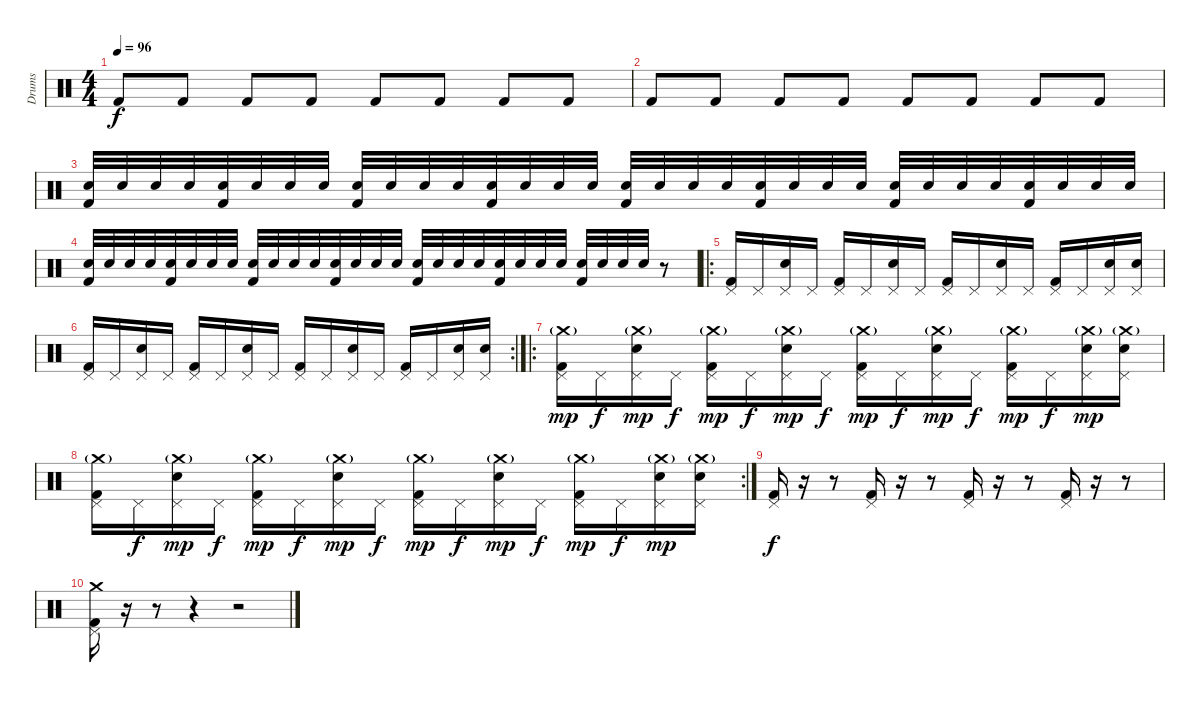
\track ("Drums" "Drums") {instrument percussion}
\staff
\articulation defaults
\ts (4 4)
\tempo 96
\clef neutral
\ks c "Kick (hit) 2".8{dy f} "Kick (hit) 2".8 "Kick (hit) 2".8 "Kick (hit) 2".8 "Kick (hit) 2".8 "Kick (hit) 2".8 "Kick (hit) 2".8 "Kick (hit) 2".8
|
"Kick (hit) 2".8 "Kick (hit) 2".8 "Kick (hit) 2".8 "Kick (hit) 2".8 "Kick (hit) 2".8 "Kick (hit) 2".8 "Kick (hit) 2".8 "Kick (hit) 2".8 |
("Kick (hit) 2" "Snare (hit) 2").32 "Snare (hit) 2".32 "Snare (hit) 2".32 "Snare (hit) 2".32 ("Kick (hit) 2" "Snare (hit) 2").32 "Snare (hit) 2".32 "Snare (hit) 2".32 "Snare (hit) 2".32 ("Kick (hit) 2" "Snare (hit) 2").32 "Snare (hit) 2".32 "Snare (hit) 2".32 "Snare (hit) 2".32 ("Kick (hit) 2" "Snare (hit) 2").32 "Snare (hit) 2".32 "Snare (hit) 2".32 "Snare (hit) 2".32 ("Kick (hit) 2" "Snare (hit) 2").32 "Snare (hit) 2".32 "Snare (hit) 2".32 "Snare (hit) 2".32 ("Kick (hit) 2" "Snare (hit) 2").32 "Snare (hit) 2".32 "Snare (hit) 2".32 "Snare (hit) 2".32 ("Kick (hit) 2" "Snare (hit) 2").32 "Snare (hit) 2".32 "Snare (hit) 2".32 "Snare (hit) 2".32 ("Kick (hit) 2" "Snare (hit) 2").32 "Snare (hit) 2".32 "Snare (hit) 2".32 "Snare (hit) 2".32 |
("Kick (hit) 2" "Snare (hit) 2").32 "Snare (hit) 2".32 "Snare (hit) 2".32 "Snare (hit) 2".32 ("Kick (hit) 2" "Snare (hit) 2").32 "Snare (hit) 2".32 "Snare (hit) 2".32 "Snare (hit) 2".32 ("Kick (hit) 2" "Snare (hit) 2").32 "Snare (hit) 2".32 "Snare (hit) 2".32 "Snare (hit) 2".32 ("Kick (hit) 2" "Snare (hit) 2").32 "Snare (hit) 2".32 "Snare (hit) 2".32 "Snare (hit) 2".32 ("Kick (hit) 2" "Snare (hit) 2").32 "Snare (hit) 2".32 "Snare (hit) 2".32 "Snare (hit) 2".32 ("Kick (hit) 2" "Snare (hit) 2").32 "Snare (hit) 2".32 "Snare (hit) 2".32 "Snare (hit) 2".32 ("Kick (hit) 2" "Snare (hit) 2").32 "Snare (hit) 2".32 "Snare (hit) 2".32 "Snare (hit) 2".32 r.8 |
\ro
("Pedal Hi-Hat (hit)" "Kick (hit) 2").16 "Pedal Hi-Hat (hit)".16 ("Pedal Hi-Hat (hit)" "Snare (hit) 2").16 "Pedal Hi-Hat (hit)".16 ("Pedal Hi-Hat (hit)" "Kick (hit) 2").16 "Pedal Hi-Hat (hit)".16 ("Pedal Hi-Hat (hit)" "Snare (hit) 2").16 "Pedal Hi-Hat (hit)".16 ("Pedal Hi-Hat (hit)" "Kick (hit) 2").16 "Pedal Hi-Hat (hit)".16 ("Pedal Hi-Hat (hit)" "Snare (hit) 2").16 "Pedal Hi-Hat (hit)".16 ("Pedal Hi-Hat (hit)" "Kick (hit) 2").16 "Pedal Hi-Hat (hit)".16 ("Pedal Hi-Hat (hit)" "Snare (hit) 2").16 ("Pedal Hi-Hat (hit)" "Snare (hit) 2").16 |
\rc 2
("Pedal Hi-Hat (hit)" "Kick (hit) 2").16 "Pedal Hi-Hat (hit)".16 ("Pedal Hi-Hat (hit)" "Snare (hit) 2").16 "Pedal Hi-Hat (hit)".16 ("Pedal Hi-Hat (hit)" "Kick (hit) 2").16 "Pedal Hi-Hat (hit)".16 ("Pedal Hi-Hat (hit)" "Snare (hit) 2").16 "Pedal Hi-Hat (hit)".16 ("Pedal Hi-Hat (hit)" "Kick (hit) 2").16 "Pedal Hi-Hat (hit)".16 ("Pedal Hi-Hat (hit)" "Snare (hit) 2").16 "Pedal Hi-Hat (hit)".16 ("Pedal Hi-Hat (hit)" "Kick (hit) 2").16 "Pedal Hi-Hat (hit)".16 ("Pedal Hi-Hat (hit)" "Snare (hit) 2").16 ("Pedal Hi-Hat (hit)" "Snare (hit) 2").16 |
\ro
("Crash medium (hit)"{g} "Pedal Hi-Hat (hit)" "Kick (hit) 2").16{dy mp} "Pedal Hi-Hat (hit)".16{dy f} ("Crash medium (hit)"{g} "Pedal Hi-Hat (hit)" "Snare (hit) 2").16{dy mp} "Pedal Hi-Hat (hit)".16{dy f} ("Crash medium (hit)"{g} "Pedal Hi-Hat (hit)" "Kick (hit) 2").16{dy mp} "Pedal Hi-Hat (hit)".16{dy f} ("Crash medium (hit)"{g} "Pedal Hi-Hat (hit)" "Snare (hit) 2").16{dy mp} "Pedal Hi-Hat (hit)".16{dy f} ("Crash medium (hit)"{g} "Pedal Hi-Hat (hit)" "Kick (hit) 2").16{dy mp} "Pedal Hi-Hat (hit)".16{dy f} ("Crash medium (hit)"{g} "Pedal Hi-Hat (hit)" "Snare (hit) 2").16{dy mp} "Pedal Hi-Hat (hit)".16{dy f} ("Crash medium (hit)"{g} "Pedal Hi-Hat (hit)" "Kick (hit) 2").16{dy mp} "Pedal Hi-Hat (hit)".16{dy f} ("Crash medium (hit)"{g} "Pedal Hi-Hat (hit)" "Snare (hit) 2").16{dy mp} ("Crash medium (hit)"{g} "Pedal Hi-Hat (hit)" "Snare (hit) 2").16 |
\rc 2
("Crash medium (hit)"{g} "Pedal Hi-Hat (hit)" "Kick (hit) 2").16 "Pedal Hi-Hat (hit)".16{dy f} ("Crash medium (hit)"{g} "Pedal Hi-Hat (hit)" "Snare (hit) 2").16{dy mp} "Pedal Hi-Hat (hit)".16{dy f} ("Crash medium (hit)"{g} "Pedal Hi-Hat (hit)" "Kick (hit) 2").16{dy mp} "Pedal Hi-Hat (hit)".16{dy f} ("Crash medium (hit)"{g} "Pedal Hi-Hat (hit)" "Snare (hit) 2").16{dy mp} "Pedal Hi-Hat (hit)".16{dy f} ("Crash medium (hit)"{g} "Pedal Hi-Hat (hit)" "Kick (hit) 2").16{dy mp} "Pedal Hi-Hat (hit)".16{dy f} ("Crash medium (hit)"{g} "Pedal Hi-Hat (hit)" "Snare (hit) 2").16{dy mp} "Pedal Hi-Hat (hit)".16{dy f} ("Crash medium (hit)"{g} "Pedal Hi-Hat (hit)" "Kick (hit) 2").16{dy mp} "Pedal Hi-Hat (hit)".16{dy f} ("Crash medium (hit)"{g} "Pedal Hi-Hat (hit)" "Snare (hit) 2").16{dy mp} ("Crash medium (hit)"{g} "Pedal Hi-Hat (hit)" "Snare (hit) 2").16 |
("Pedal Hi-Hat (hit)" "Kick (hit) 2").16{dy f} r.16 r.8 ("Pedal Hi-Hat (hit)" "Kick (hit) 2").16 r.16 r.8 ("Pedal Hi-Hat (hit)" "Kick (hit) 2").16 r.16 r.8 ("Pedal Hi-Hat (hit)" "Kick (hit) 2").16 r.16 r.8 |
("Crash medium (hit)" "Pedal Hi-Hat (hit)" "Kick (hit) 2").16 r.16 r.8 r.4 r.2
